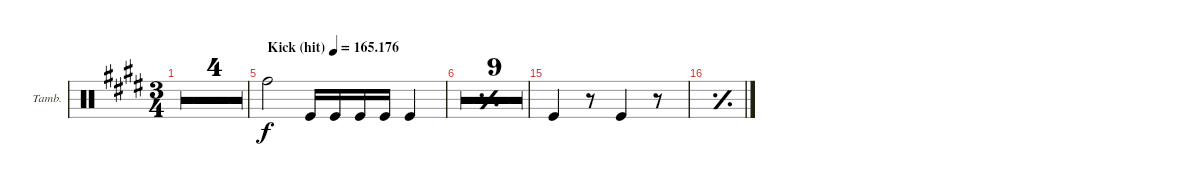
\defaultSystemsLayout 4
\bracketExtendMode groupsimilarinstruments
\firstSystemTrackNameOrientation horizontal
\otherSystemsTrackNameOrientation horizontal
\track ("Tambourine" "Tamb.") {multiBarRest instrument percussion}
\staff {score}
\articulation defaults
\ts (3 4)
\tempo
150.035
\accidentals auto
\clef neutral
\ottava regular
\simile firstofdouble
\ks e
|
\simile secondofdouble
|
\simile simple
|
\simile none
r.2{d} |
\tempo
165.176 "Kick (hit)".4 "Kick (hit)".16 "Kick (hit)".16 "Kick (hit)".16 "Kick (hit)".16 "Kick (hit)".4 |
\simile simple
|
\simile firstofdouble
|
\simile secondofdouble
|
\simile firstofdouble
|
\simile secondofdouble
|
\simile firstofdouble
|
\simile secondofdouble
|
\simile firstofdouble
|
\simile secondofdouble
|
\simile none "Kick (hit)".4
r.8 "Kick (hit)".4 r.8 |
\simile simple
